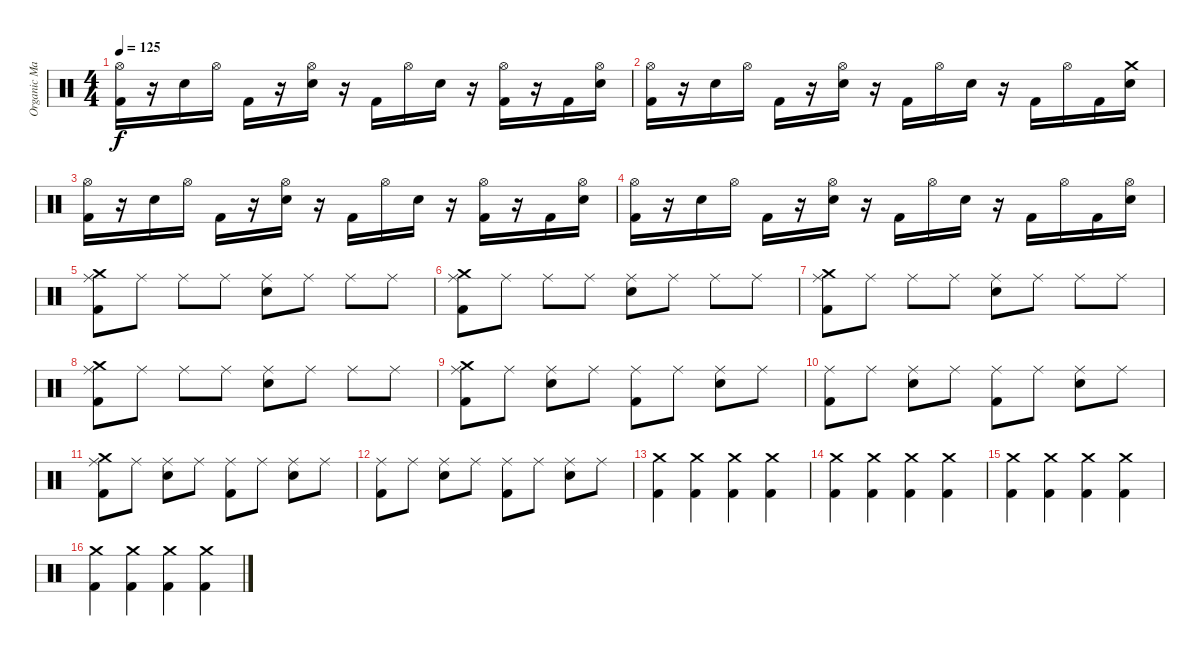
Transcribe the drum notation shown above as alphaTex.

\track ("Organic Masturbator Of 1000 Splatter Who" "Organic Ma") {instrument percussion}
\staff {score}
\articulation defaults
\ts (4 4)
\tempo 125
\clef neutral
\ks c
("Hi-Hat (open)" "Kick (hit) 2").16{dy f} r.16 "Electric Snare (hit)".16 "Hi-Hat (open)".16 "Kick (hit) 2".16 r.16 ("Hi-Hat (open)" "Electric Snare (hit)").16 r.16 "Kick (hit) 2".16 "Hi-Hat (open)".16 "Electric Snare (hit)".16 r.16 ("Hi-Hat (open)" "Kick (hit) 2").16 r.16 "Kick (hit) 2".16 ("Hi-Hat (open)" "Electric Snare (hit)").16 |
("Hi-Hat (open)" "Kick (hit) 2").16 r.16 "Electric Snare (hit)".16 "Hi-Hat (open)".16 "Kick (hit) 2".16 r.16 ("Hi-Hat (open)" "Electric Snare (hit)").16 r.16 "Kick (hit) 2".16 "Hi-Hat (open)".16 "Electric Snare (hit)".16 r.16 "Kick (hit) 2".16 "Hi-Hat (open)".16 "Kick (hit) 2".16 ("Crash medium (hit)" "Electric Snare (hit)").16 |
("Hi-Hat (open)" "Kick (hit) 2").16 r.16 "Electric Snare (hit)".16 "Hi-Hat (open)".16 "Kick (hit) 2".16 r.16 ("Hi-Hat (open)" "Electric Snare (hit)").16 r.16 "Kick (hit) 2".16 "Hi-Hat (open)".16 "Electric Snare (hit)".16 r.16 ("Hi-Hat (open)" "Kick (hit) 2").16 r.16 "Kick (hit) 2".16 ("Hi-Hat (open)" "Electric Snare (hit)").16 |
("Hi-Hat (open)" "Kick (hit) 2").16 r.16 "Electric Snare (hit)".16 "Hi-Hat (open)".16 "Kick (hit) 2".16 r.16 ("Hi-Hat (open)" "Electric Snare (hit)").16 r.16 "Kick (hit) 2".16 "Hi-Hat (open)".16 "Electric Snare (hit)".16 r.16 "Kick (hit) 2".16 "Hi-Hat (open)".16 "Kick (hit) 2".16 ("Hi-Hat (open)" "Electric Snare (hit)").16 |
("Ride (middle)" "Crash medium (hit)" "Kick (hit) 2").8 "Ride (middle)".8 "Ride (middle)".8 "Ride (middle)".8 ("Ride (middle)" "Electric Snare (hit)").8 "Ride (middle)".8 "Ride (middle)".8 "Ride (middle)".8 |
("Ride (middle)" "Crash medium (hit)" "Kick (hit) 2").8 "Ride (middle)".8 "Ride (middle)".8 "Ride (middle)".8 ("Ride (middle)" "Electric Snare (hit)").8 "Ride (middle)".8 "Ride (middle)".8 "Ride (middle)".8 |
("Ride (middle)" "Crash medium (hit)" "Kick (hit) 2").8 "Ride (middle)".8 "Ride (middle)".8 "Ride (middle)".8 ("Ride (middle)" "Electric Snare (hit)").8 "Ride (middle)".8 "Ride (middle)".8 "Ride (middle)".8 |
("Ride (middle)" "Crash medium (hit)" "Kick (hit) 2").8 "Ride (middle)".8 "Ride (middle)".8 "Ride (middle)".8 ("Ride (middle)" "Electric Snare (hit)").8 "Ride (middle)".8 "Ride (middle)".8 "Ride (middle)".8 |
("Ride (middle)" "Crash medium (hit)" "Kick (hit) 2").8 "Ride (middle)".8 ("Ride (middle)" "Electric Snare (hit)").8 "Ride (middle)".8 ("Ride (middle)" "Kick (hit) 2").8 "Ride (middle)".8 ("Ride (middle)" "Electric Snare (hit)").8 "Ride (middle)".8 |
("Ride (middle)" "Kick (hit) 2").8 "Ride (middle)".8 ("Ride (middle)" "Electric Snare (hit)").8 "Ride (middle)".8 ("Ride (middle)" "Kick (hit) 2").8 "Ride (middle)".8 ("Ride (middle)" "Electric Snare (hit)").8 "Ride (middle)".8 |
("Ride (middle)" "Crash medium (hit)" "Kick (hit) 2").8 "Ride (middle)".8 ("Ride (middle)" "Electric Snare (hit)").8 "Ride (middle)".8 ("Ride (middle)" "Kick (hit) 2").8 "Ride (middle)".8 ("Ride (middle)" "Electric Snare (hit)").8 "Ride (middle)".8 |
("Ride (middle)" "Kick (hit) 2").8 "Ride (middle)".8 ("Ride (middle)" "Electric Snare (hit)").8 "Ride (middle)".8 ("Ride (middle)" "Kick (hit) 2").8 "Ride (middle)".8 ("Ride (middle)" "Electric Snare (hit)").8 "Ride (middle)".8 |
("Crash medium (hit)" "Kick (hit) 2").4 ("Crash medium (hit)" "Kick (hit) 2").4 ("Crash medium (hit)" "Kick (hit) 2").4 ("Crash medium (hit)" "Kick (hit) 2").4 |
("Crash medium (hit)" "Kick (hit) 2").4 ("Crash medium (hit)" "Kick (hit) 2").4 ("Crash medium (hit)" "Kick (hit) 2").4 ("Crash medium (hit)" "Kick (hit) 2").4 |
("Crash medium (hit)" "Kick (hit) 2").4 ("Crash medium (hit)" "Kick (hit) 2").4 ("Crash medium (hit)" "Kick (hit) 2").4 ("Crash medium (hit)" "Kick (hit) 2").4 |
("Crash medium (hit)" "Kick (hit) 2").4 ("Crash medium (hit)" "Kick (hit) 2").4 ("Crash medium (hit)" "Kick (hit) 2").4 ("Crash medium (hit)" "Kick (hit) 2").4
